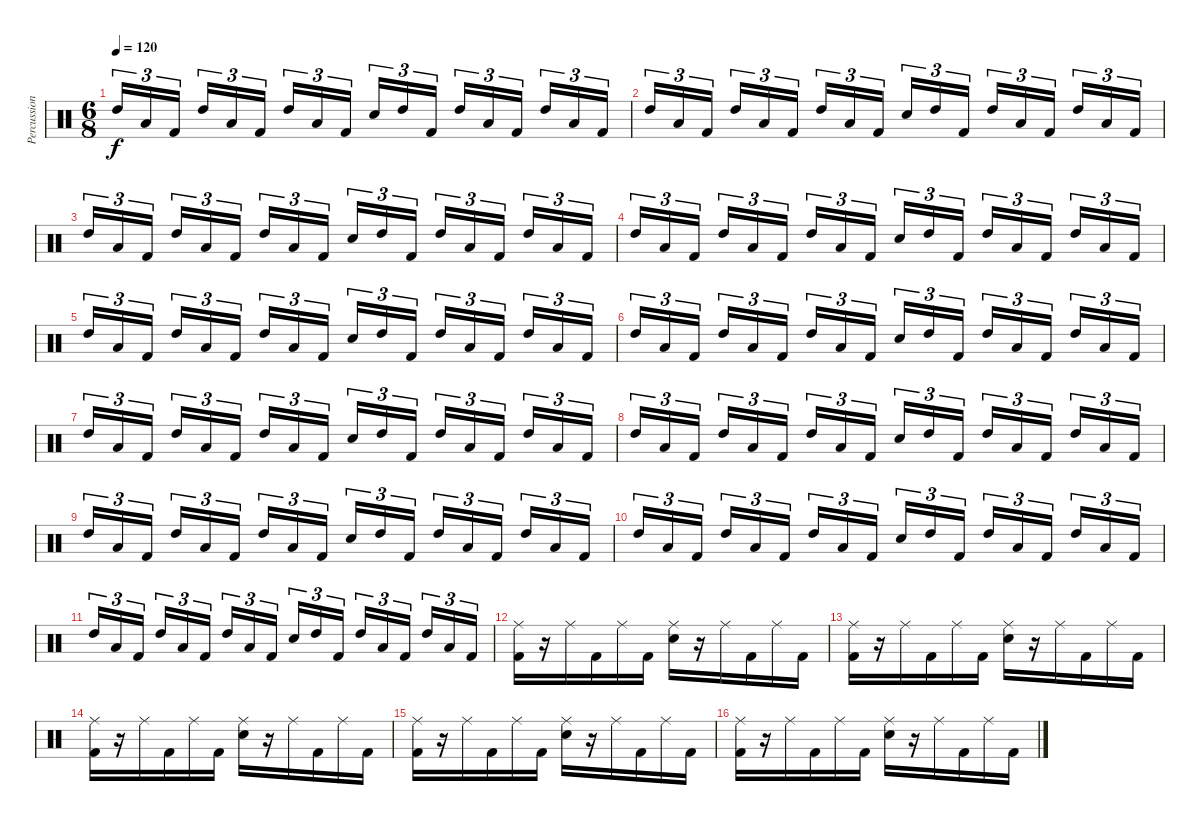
\track ("Percussion" "Percussion") {instrument percussion}
\staff {score}
\articulation defaults
\ts (6 8)
\tempo 120
\clef neutral
\ks c "High Tom (hit)".16{tu (3 2) dy f} "Low Tom (hit)".16{tu (3 2)} "Kick (hit) 2".16{tu (3 2) beam splitsecondary} "High Tom (hit)".16{tu (3 2)} "Low Tom (hit)".16{tu (3 2)} "Kick (hit) 2".16{tu (3 2) beam splitsecondary} "High Tom (hit)".16{tu (3 2)} "Low Tom (hit)".16{tu (3 2)} "Kick (hit) 2".16{tu (3 2)} "Electric Snare (hit)".16{tu (3 2)} "High Tom (hit)".16{tu (3 2)} "Kick (hit) 2".16{tu (3 2) beam splitsecondary} "High Tom (hit)".16{tu (3 2)} "Low Tom (hit)".16{tu (3 2)} "Kick (hit) 2".16{tu (3 2) beam splitsecondary} "High Tom (hit)".16{tu (3 2)} "Low Tom (hit)".16{tu (3 2)} "Kick (hit) 2".16{tu (3 2)}
|
"High Tom (hit)".16{tu (3 2)} "Low Tom (hit)".16{tu (3 2)} "Kick (hit) 2".16{tu (3 2) beam splitsecondary} "High Tom (hit)".16{tu (3 2)} "Low Tom (hit)".16{tu (3 2)} "Kick (hit) 2".16{tu (3 2) beam splitsecondary} "High Tom (hit)".16{tu (3 2)} "Low Tom (hit)".16{tu (3 2)} "Kick (hit) 2".16{tu (3 2)} "Electric Snare (hit)".16{tu (3 2)} "High Tom (hit)".16{tu (3 2)} "Kick (hit) 2".16{tu (3 2) beam splitsecondary} "High Tom (hit)".16{tu (3 2)} "Low Tom (hit)".16{tu (3 2)} "Kick (hit) 2".16{tu (3 2) beam splitsecondary} "High Tom (hit)".16{tu (3 2)} "Low Tom (hit)".16{tu (3 2)} "Kick (hit) 2".16{tu (3 2)} |
"High Tom (hit)".16{tu (3 2)} "Low Tom (hit)".16{tu (3 2)} "Kick (hit) 2".16{tu (3 2) beam splitsecondary} "High Tom (hit)".16{tu (3 2)} "Low Tom (hit)".16{tu (3 2)} "Kick (hit) 2".16{tu (3 2) beam splitsecondary} "High Tom (hit)".16{tu (3 2)} "Low Tom (hit)".16{tu (3 2)} "Kick (hit) 2".16{tu (3 2)} "Electric Snare (hit)".16{tu (3 2)} "High Tom (hit)".16{tu (3 2)} "Kick (hit) 2".16{tu (3 2) beam splitsecondary} "High Tom (hit)".16{tu (3 2)} "Low Tom (hit)".16{tu (3 2)} "Kick (hit) 2".16{tu (3 2) beam splitsecondary} "High Tom (hit)".16{tu (3 2)} "Low Tom (hit)".16{tu (3 2)} "Kick (hit) 2".16{tu (3 2)} |
"High Tom (hit)".16{tu (3 2)} "Low Tom (hit)".16{tu (3 2)} "Kick (hit) 2".16{tu (3 2) beam splitsecondary} "High Tom (hit)".16{tu (3 2)} "Low Tom (hit)".16{tu (3 2)} "Kick (hit) 2".16{tu (3 2) beam splitsecondary} "High Tom (hit)".16{tu (3 2)} "Low Tom (hit)".16{tu (3 2)} "Kick (hit) 2".16{tu (3 2)} "Electric Snare (hit)".16{tu (3 2)} "High Tom (hit)".16{tu (3 2)} "Kick (hit) 2".16{tu (3 2) beam splitsecondary} "High Tom (hit)".16{tu (3 2)} "Low Tom (hit)".16{tu (3 2)} "Kick (hit) 2".16{tu (3 2) beam splitsecondary} "High Tom (hit)".16{tu (3 2)} "Low Tom (hit)".16{tu (3 2)} "Kick (hit) 2".16{tu (3 2)} |
"High Tom (hit)".16{tu (3 2)} "Low Tom (hit)".16{tu (3 2)} "Kick (hit) 2".16{tu (3 2) beam splitsecondary} "High Tom (hit)".16{tu (3 2)} "Low Tom (hit)".16{tu (3 2)} "Kick (hit) 2".16{tu (3 2) beam splitsecondary} "High Tom (hit)".16{tu (3 2)} "Low Tom (hit)".16{tu (3 2)} "Kick (hit) 2".16{tu (3 2)} "Electric Snare (hit)".16{tu (3 2)} "High Tom (hit)".16{tu (3 2)} "Kick (hit) 2".16{tu (3 2) beam splitsecondary} "High Tom (hit)".16{tu (3 2)} "Low Tom (hit)".16{tu (3 2)} "Kick (hit) 2".16{tu (3 2) beam splitsecondary} "High Tom (hit)".16{tu (3 2)} "Low Tom (hit)".16{tu (3 2)} "Kick (hit) 2".16{tu (3 2)} |
"High Tom (hit)".16{tu (3 2)} "Low Tom (hit)".16{tu (3 2)} "Kick (hit) 2".16{tu (3 2) beam splitsecondary} "High Tom (hit)".16{tu (3 2)} "Low Tom (hit)".16{tu (3 2)} "Kick (hit) 2".16{tu (3 2) beam splitsecondary} "High Tom (hit)".16{tu (3 2)} "Low Tom (hit)".16{tu (3 2)} "Kick (hit) 2".16{tu (3 2)} "Electric Snare (hit)".16{tu (3 2)} "High Tom (hit)".16{tu (3 2)} "Kick (hit) 2".16{tu (3 2) beam splitsecondary} "High Tom (hit)".16{tu (3 2)} "Low Tom (hit)".16{tu (3 2)} "Kick (hit) 2".16{tu (3 2) beam splitsecondary} "High Tom (hit)".16{tu (3 2)} "Low Tom (hit)".16{tu (3 2)} "Kick (hit) 2".16{tu (3 2)} |
"High Tom (hit)".16{tu (3 2)} "Low Tom (hit)".16{tu (3 2)} "Kick (hit) 2".16{tu (3 2) beam splitsecondary} "High Tom (hit)".16{tu (3 2)} "Low Tom (hit)".16{tu (3 2)} "Kick (hit) 2".16{tu (3 2) beam splitsecondary} "High Tom (hit)".16{tu (3 2)} "Low Tom (hit)".16{tu (3 2)} "Kick (hit) 2".16{tu (3 2)} "Electric Snare (hit)".16{tu (3 2)} "High Tom (hit)".16{tu (3 2)} "Kick (hit) 2".16{tu (3 2) beam splitsecondary} "High Tom (hit)".16{tu (3 2)} "Low Tom (hit)".16{tu (3 2)} "Kick (hit) 2".16{tu (3 2) beam splitsecondary} "High Tom (hit)".16{tu (3 2)} "Low Tom (hit)".16{tu (3 2)} "Kick (hit) 2".16{tu (3 2)} |
"High Tom (hit)".16{tu (3 2)} "Low Tom (hit)".16{tu (3 2)} "Kick (hit) 2".16{tu (3 2) beam splitsecondary} "High Tom (hit)".16{tu (3 2)} "Low Tom (hit)".16{tu (3 2)} "Kick (hit) 2".16{tu (3 2) beam splitsecondary} "High Tom (hit)".16{tu (3 2)} "Low Tom (hit)".16{tu (3 2)} "Kick (hit) 2".16{tu (3 2)} "Electric Snare (hit)".16{tu (3 2)} "High Tom (hit)".16{tu (3 2)} "Kick (hit) 2".16{tu (3 2) beam splitsecondary} "High Tom (hit)".16{tu (3 2)} "Low Tom (hit)".16{tu (3 2)} "Kick (hit) 2".16{tu (3 2) beam splitsecondary} "High Tom (hit)".16{tu (3 2)} "Low Tom (hit)".16{tu (3 2)} "Kick (hit) 2".16{tu (3 2)} |
"High Tom (hit)".16{tu (3 2)} "Low Tom (hit)".16{tu (3 2)} "Kick (hit) 2".16{tu (3 2) beam splitsecondary} "High Tom (hit)".16{tu (3 2)} "Low Tom (hit)".16{tu (3 2)} "Kick (hit) 2".16{tu (3 2) beam splitsecondary} "High Tom (hit)".16{tu (3 2)} "Low Tom (hit)".16{tu (3 2)} "Kick (hit) 2".16{tu (3 2)} "Electric Snare (hit)".16{tu (3 2)} "High Tom (hit)".16{tu (3 2)} "Kick (hit) 2".16{tu (3 2) beam splitsecondary} "High Tom (hit)".16{tu (3 2)} "Low Tom (hit)".16{tu (3 2)} "Kick (hit) 2".16{tu (3 2) beam splitsecondary} "High Tom (hit)".16{tu (3 2)} "Low Tom (hit)".16{tu (3 2)} "Kick (hit) 2".16{tu (3 2)} |
"High Tom (hit)".16{tu (3 2)} "Low Tom (hit)".16{tu (3 2)} "Kick (hit) 2".16{tu (3 2) beam splitsecondary} "High Tom (hit)".16{tu (3 2)} "Low Tom (hit)".16{tu (3 2)} "Kick (hit) 2".16{tu (3 2) beam splitsecondary} "High Tom (hit)".16{tu (3 2)} "Low Tom (hit)".16{tu (3 2)} "Kick (hit) 2".16{tu (3 2)} "Electric Snare (hit)".16{tu (3 2)} "High Tom (hit)".16{tu (3 2)} "Kick (hit) 2".16{tu (3 2) beam splitsecondary} "High Tom (hit)".16{tu (3 2)} "Low Tom (hit)".16{tu (3 2)} "Kick (hit) 2".16{tu (3 2) beam splitsecondary} "High Tom (hit)".16{tu (3 2)} "Low Tom (hit)".16{tu (3 2)} "Kick (hit) 2".16{tu (3 2)} |
"High Tom (hit)".16{tu (3 2)} "Low Tom (hit)".16{tu (3 2)} "Kick (hit) 2".16{tu (3 2) beam splitsecondary} "High Tom (hit)".16{tu (3 2)} "Low Tom (hit)".16{tu (3 2)} "Kick (hit) 2".16{tu (3 2) beam splitsecondary} "High Tom (hit)".16{tu (3 2)} "Low Tom (hit)".16{tu (3 2)} "Kick (hit) 2".16{tu (3 2)} "Electric Snare (hit)".16{tu (3 2)} "High Tom (hit)".16{tu (3 2)} "Kick (hit) 2".16{tu (3 2) beam splitsecondary} "High Tom (hit)".16{tu (3 2)} "Low Tom (hit)".16{tu (3 2)} "Kick (hit) 2".16{tu (3 2) beam splitsecondary} "High Tom (hit)".16{tu (3 2)} "Low Tom (hit)".16{tu (3 2)} "Kick (hit) 2".16{tu (3 2)} |
("Ride (middle)" "Kick (hit) 2").16 r.16 "Ride (middle)".16 "Kick (hit) 2".16 "Ride (middle)".16 "Kick (hit) 2".16 ("Ride (middle)" "Electric Snare (hit)").16 r.16 "Ride (middle)".16 "Kick (hit) 2".16 "Ride (middle)".16 "Kick (hit) 2".16 |
("Ride (middle)" "Kick (hit) 2").16 r.16 "Ride (middle)".16 "Kick (hit) 2".16 "Ride (middle)".16 "Kick (hit) 2".16 ("Ride (middle)" "Electric Snare (hit)").16 r.16 "Ride (middle)".16 "Kick (hit) 2".16 "Ride (middle)".16 "Kick (hit) 2".16 |
("Ride (middle)" "Kick (hit) 2").16 r.16 "Ride (middle)".16 "Kick (hit) 2".16 "Ride (middle)".16 "Kick (hit) 2".16 ("Ride (middle)" "Electric Snare (hit)").16 r.16 "Ride (middle)".16 "Kick (hit) 2".16 "Ride (middle)".16 "Kick (hit) 2".16 |
("Ride (middle)" "Kick (hit) 2").16 r.16 "Ride (middle)".16 "Kick (hit) 2".16 "Ride (middle)".16 "Kick (hit) 2".16 ("Ride (middle)" "Electric Snare (hit)").16 r.16 "Ride (middle)".16 "Kick (hit) 2".16 "Ride (middle)".16 "Kick (hit) 2".16 |
("Ride (middle)" "Kick (hit) 2").16 r.16 "Ride (middle)".16 "Kick (hit) 2".16 "Ride (middle)".16 "Kick (hit) 2".16 ("Ride (middle)" "Electric Snare (hit)").16 r.16 "Ride (middle)".16 "Kick (hit) 2".16 "Ride (middle)".16 "Kick (hit) 2".16
